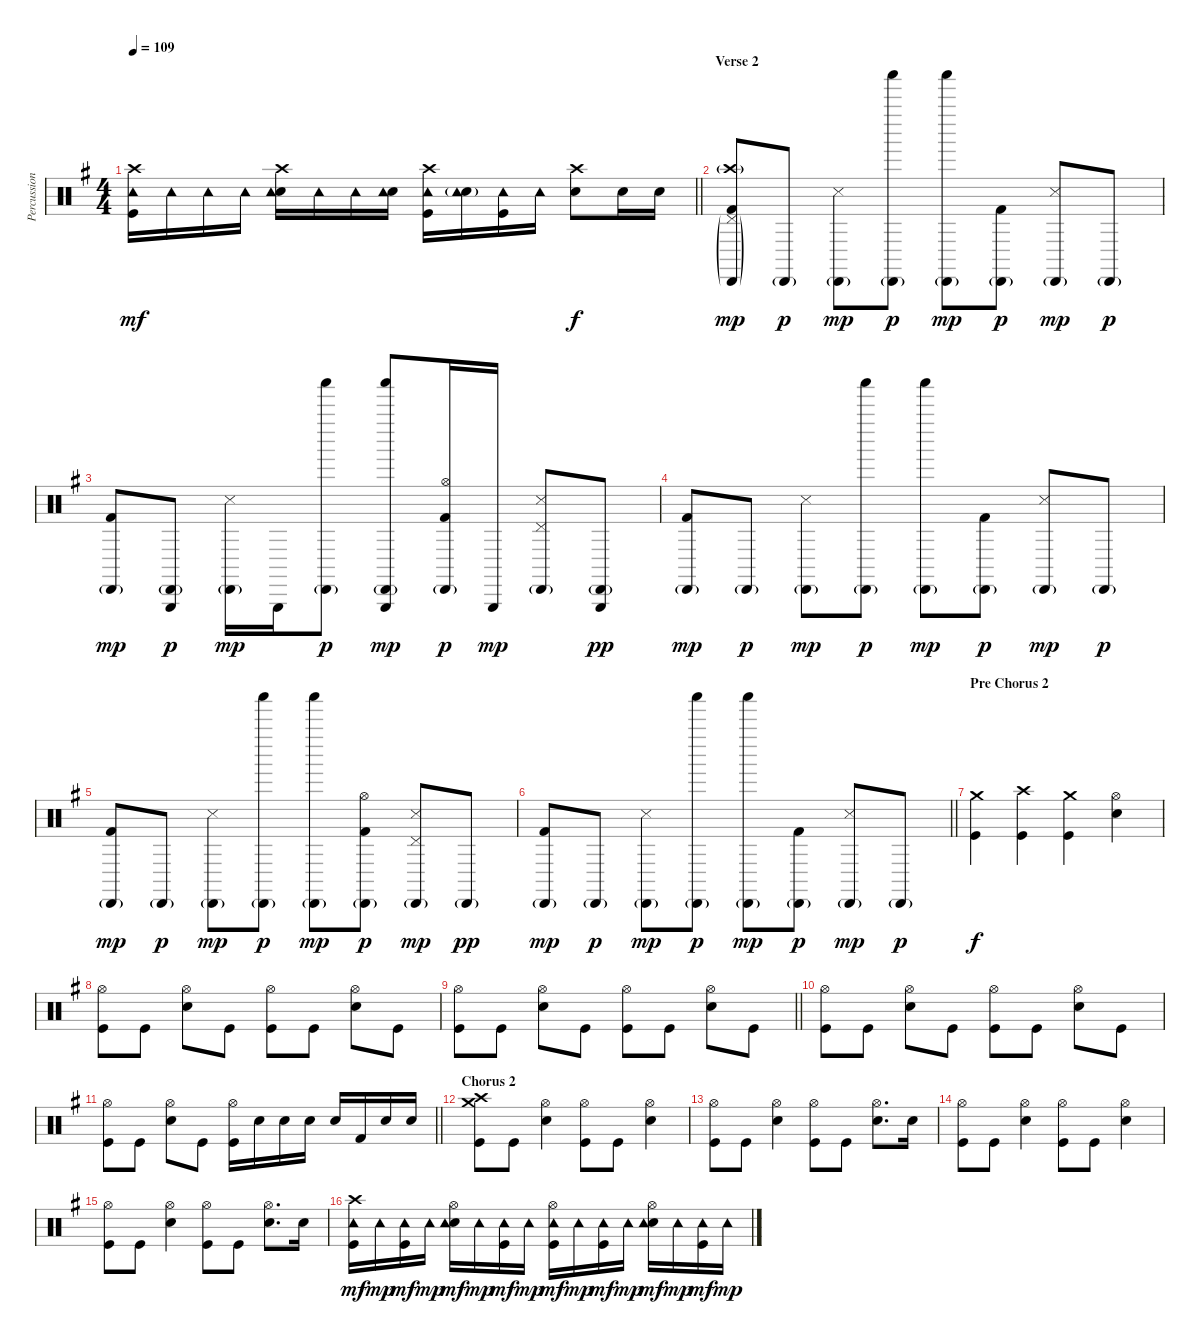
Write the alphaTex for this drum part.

\track ("Percussion" "Percussion") {instrument percussion}
\staff {score}
\articulation defaults
\ts (4 4)
\tempo 109
\clef neutral
\barLineRight lightlight
\ks g
("Crash high (hit)" "Tambourine (hit)" "Kick (hit)").16{dy mf} "Tambourine (hit)".16 "Tambourine (hit)".16 "Tambourine (hit)".16 ("Crash high (hit)" "Electric Snare (hit)" "Tambourine (hit)").16 "Tambourine (hit)".16 "Tambourine (hit)".16 ("Electric Snare (hit)" "Tambourine (hit)").16 ("Crash high (hit)" "Tambourine (hit)" "Kick (hit)").16 ("Electric Snare (hit)"{g} "Tambourine (hit)").16 ("Tambourine (hit)" "Kick (hit)").16 "Tambourine (hit)".16 ("Crash high (hit)" "Electric Snare (hit)").8{dy f} "Electric Snare (hit)".16 "Electric Snare (hit)".16 |
\section ("" "Verse 2")
("Crash high (hit)"{g} "Pedal Hi-Hat (hit)"{g} "Cabasa (hit)"{g} "Kick (hit) 2").8{dy mp} "Cabasa (hit)"{g}.8{dy p} ("Snare (side stick) 3" "Cabasa (hit)"{g}).8{dy mp} ("Shaker (hit)" "Cabasa (hit)"{g}).8{dy p} ("Shaker (hit)" "Cabasa (hit)"{g}).8{dy mp} ("Cabasa (hit)"{g} "Kick (hit) 2").8{dy p} ("Snare (side stick) 3" "Cabasa (hit)"{g}).8{dy mp} "Cabasa (hit)"{g}.8{dy p} |
("Cabasa (hit)"{g} "Kick (hit) 2").8{dy mp} ("Triangle (hit)" "Cabasa (hit)"{g}).8{dy p} ("Snare (side stick) 3" "Cabasa (hit)"{g}).16{dy mp} "Triangle (hit)".16 ("Shaker (hit)" "Cabasa (hit)"{g}).8{dy p} ("Triangle (hit)" "Shaker (hit)" "Cabasa (hit)"{g}).8{dy mp} ("Hi-Hat (open)" "Cabasa (hit)"{g} "Kick (hit) 2").16{dy p} "Triangle (hit)".16{dy mp} ("Snare (side stick) 3" "Pedal Hi-Hat (hit)" "Cabasa (hit)"{g}).8 ("Triangle (hit)" "Cabasa (hit)"{g}).8{dy pp} |
("Cabasa (hit)"{g} "Kick (hit) 2").8{dy mp} "Cabasa (hit)"{g}.8{dy p} ("Snare (side stick) 3" "Cabasa (hit)"{g}).8{dy mp} ("Shaker (hit)" "Cabasa (hit)"{g}).8{dy p} ("Shaker (hit)" "Cabasa (hit)"{g}).8{dy mp} ("Cabasa (hit)"{g} "Kick (hit) 2").8{dy p} ("Snare (side stick) 3" "Cabasa (hit)"{g}).8{dy mp} "Cabasa (hit)"{g}.8{dy p} |
("Cabasa (hit)"{g} "Kick (hit) 2").8{dy mp} "Cabasa (hit)"{g}.8{dy p} ("Snare (side stick) 3" "Cabasa (hit)"{g}).8{dy mp} ("Shaker (hit)" "Cabasa (hit)"{g}).8{dy p} ("Shaker (hit)" "Cabasa (hit)"{g}).8{dy mp} ("Hi-Hat (open)" "Cabasa (hit)"{g} "Kick (hit) 2").8{dy p} ("Snare (side stick) 3" "Pedal Hi-Hat (hit)" "Cabasa (hit)"{g}).8{dy mp} "Cabasa (hit)"{g}.8{dy pp} |
\barLineRight lightlight
("Cabasa (hit)"{g} "Kick (hit) 2").8{dy mp} "Cabasa (hit)"{g}.8{dy p} ("Snare (side stick) 3" "Cabasa (hit)"{g}).8{dy mp} ("Shaker (hit)" "Cabasa (hit)"{g}).8{dy p} ("Shaker (hit)" "Cabasa (hit)"{g}).8{dy mp} ("Cabasa (hit)"{g} "Kick (hit) 2").8{dy p} ("Snare (side stick) 3" "Cabasa (hit)"{g}).8{dy mp} "Cabasa (hit)"{g}.8{dy p} |
\section ("" "Pre Chorus 2")
("Crash medium (hit)" "Kick (hit)").4{dy f} ("Crash high (hit)" "Kick (hit)").4 ("Crash medium (hit)" "Kick (hit)").4 ("Hi-Hat (open)" "Electric Snare (hit)").4 |
("Hi-Hat (open)" "Kick (hit)").8 "Kick (hit)".8 ("Hi-Hat (open)" "Electric Snare (hit)").8 "Kick (hit)".8 ("Hi-Hat (open)" "Kick (hit)").8 "Kick (hit)".8 ("Hi-Hat (open)" "Electric Snare (hit)").8 "Kick (hit)".8 |
\barLineRight lightlight
("Hi-Hat (open)" "Kick (hit)").8 "Kick (hit)".8 ("Hi-Hat (open)" "Electric Snare (hit)").8 "Kick (hit)".8 ("Hi-Hat (open)" "Kick (hit)").8 "Kick (hit)".8 ("Hi-Hat (open)" "Electric Snare (hit)").8 "Kick (hit)".8 |
("Hi-Hat (open)" "Kick (hit)").8 "Kick (hit)".8 ("Hi-Hat (open)" "Electric Snare (hit)").8 "Kick (hit)".8 ("Hi-Hat (open)" "Kick (hit)").8 "Kick (hit)".8 ("Hi-Hat (open)" "Electric Snare (hit)").8 "Kick (hit)".8 |
\barLineRight lightlight
("Hi-Hat (open)" "Kick (hit)").8 "Kick (hit)".8 ("Hi-Hat (open)" "Electric Snare (hit)").8 "Kick (hit)".8 ("Hi-Hat (open)" "Kick (hit)").16 "Electric Snare (hit)".16 "Electric Snare (hit)".16 "Electric Snare (hit)".16 "Electric Snare (hit)".16 "Kick (hit) 2".16 "Electric Snare (hit)".16 "Electric Snare (hit)".16 |
\section ("" "Chorus 2")
("Crash high (hit)" "Crash medium (hit)" "Kick (hit)").8 "Kick (hit)".8 ("Hi-Hat (open)" "Electric Snare (hit)").4 ("Hi-Hat (open)" "Kick (hit)").8 "Kick (hit)".8 ("Hi-Hat (open)" "Electric Snare (hit)").4 |
("Hi-Hat (open)" "Kick (hit)").8 "Kick (hit)".8 ("Hi-Hat (open)" "Electric Snare (hit)").4 ("Hi-Hat (open)" "Kick (hit)").8 "Kick (hit)".8 ("Hi-Hat (open)" "Electric Snare (hit)").8{d} "Electric Snare (hit)".16 |
("Hi-Hat (open)" "Kick (hit)").8 "Kick (hit)".8 ("Hi-Hat (open)" "Electric Snare (hit)").4 ("Hi-Hat (open)" "Kick (hit)").8 "Kick (hit)".8 ("Hi-Hat (open)" "Electric Snare (hit)").4 |
("Hi-Hat (open)" "Kick (hit)").8 "Kick (hit)".8 ("Hi-Hat (open)" "Electric Snare (hit)").4 ("Hi-Hat (open)" "Kick (hit)").8 "Kick (hit)".8 ("Hi-Hat (open)" "Electric Snare (hit)").8{d} "Electric Snare (hit)".16 |
("Crash high (hit)" "Tambourine (hit)" "Kick (hit)").16{dy mf} "Tambourine (hit)".16{dy mp} ("Tambourine (hit)" "Kick (hit)").16{dy mf} "Tambourine (hit)".16{dy mp} ("Hi-Hat (open)" "Electric Snare (hit)" "Tambourine (hit)").16{dy mf} "Tambourine (hit)".16{dy mp} ("Tambourine (hit)" "Kick (hit)").16{dy mf} "Tambourine (hit)".16{dy mp} ("Hi-Hat (open)" "Tambourine (hit)" "Kick (hit)").16{dy mf} "Tambourine (hit)".16{dy mp} ("Tambourine (hit)" "Kick (hit)").16{dy mf} "Tambourine (hit)".16{dy mp} ("Hi-Hat (open)" "Electric Snare (hit)" "Tambourine (hit)").16{dy mf} "Tambourine (hit)".16{dy mp} ("Tambourine (hit)" "Kick (hit)").16{dy mf} "Tambourine (hit)".16{dy mp}
